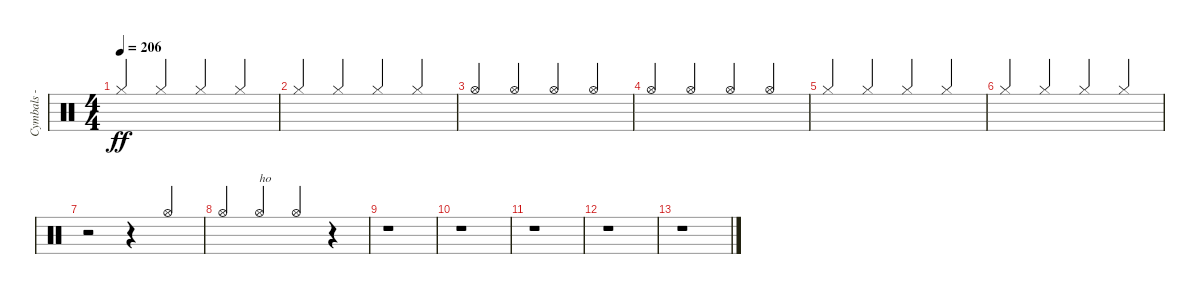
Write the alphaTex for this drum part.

\track ("Cymbals - hi-hat" "Cymbals - ") {instrument percussion}
\staff {score}
\articulation defaults
\ts (4 4)
\tempo 206
\clef neutral
\ks c "Hi-Hat (closed)".4{dy ff beam Up} "Hi-Hat (closed)".4{beam Up} "Hi-Hat (closed)".4{beam Up} "Hi-Hat (closed)".4{beam Up}
|
"Hi-Hat (closed)".4{beam Up} "Hi-Hat (closed)".4{beam Up} "Hi-Hat (closed)".4{beam Up} "Hi-Hat (closed)".4{beam Up} |
"Hi-Hat (open)".4{beam Up} "Hi-Hat (open)".4{beam Up} "Hi-Hat (open)".4{beam Up} "Hi-Hat (open)".4{beam Up} |
"Hi-Hat (open)".4{beam Up} "Hi-Hat (open)".4{beam Up} "Hi-Hat (open)".4{beam Up} "Hi-Hat (open)".4{beam Up} |
"Hi-Hat (closed)".4{beam Up} "Hi-Hat (closed)".4{beam Up} "Hi-Hat (closed)".4{beam Up} "Hi-Hat (closed)".4{beam Up} |
"Hi-Hat (closed)".4{beam Up} "Hi-Hat (closed)".4{beam Up} "Hi-Hat (closed)".4{beam Up} "Hi-Hat (closed)".4{beam Up} |
r.2 r.4 "Hi-Hat (open)".4{beam Up} |
"Hi-Hat (open)".4{beam Up} "Hi-Hat (open)".4{txt "ho" beam Up} "Hi-Hat (open)".4{beam Up} r.4 |
r.1 |
r.1 |
r.1 |
r.1 |
r.1
